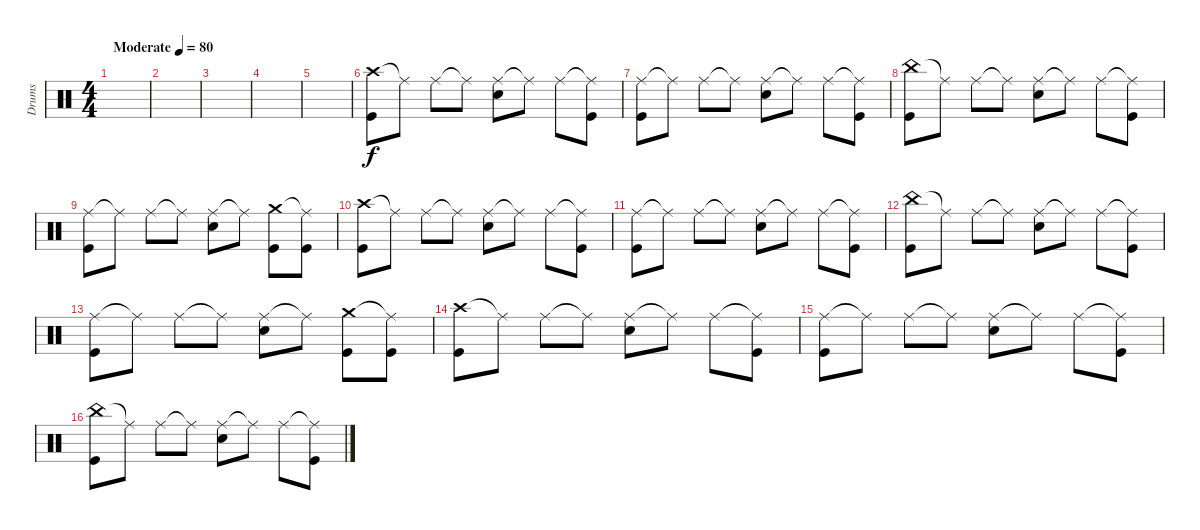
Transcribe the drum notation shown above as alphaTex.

\track ("Drums" "Drums") {instrument percussion}
\staff {score}
\articulation defaults
\ts (4 4)
\tempo (80 "Moderate")
\clef neutral
\ks c
|
|
|
|
|
("Crash high (hit)" "Kick (hit)").8 "Ride (middle)"{t}.8 "Ride (middle)".8 "Ride (middle)"{t}.8 ("Ride (middle)" "Electric Snare (hit)").8 "Ride (middle)"{t}.8 "Ride (middle)".8 ("Ride (middle)"{t} "Kick (hit)").8 |
("Ride (middle)" "Kick (hit)").8 "Ride (middle)"{t}.8 "Ride (middle)".8 "Ride (middle)"{t}.8 ("Ride (middle)" "Electric Snare (hit)").8 "Ride (middle)"{t}.8 "Ride (middle)".8 ("Ride (middle)"{t} "Kick (hit)").8 |
("China (hit)" "Kick (hit)").8 "Ride (middle)"{t}.8 "Ride (middle)".8 "Ride (middle)"{t}.8 ("Ride (middle)" "Electric Snare (hit)").8 "Ride (middle)"{t}.8 "Ride (middle)".8 ("Ride (middle)"{t} "Kick (hit)").8 |
("Ride (middle)" "Kick (hit)").8 "Ride (middle)"{t}.8 "Ride (middle)".8 "Ride (middle)"{t}.8 ("Ride (middle)" "Electric Snare (hit)").8 "Ride (middle)"{t}.8 ("Crash medium (hit)" "Kick (hit)").8 ("Ride (middle)"{t} "Kick (hit)").8 |
("Crash high (hit)" "Kick (hit)").8 "Ride (middle)"{t}.8 "Ride (middle)".8 "Ride (middle)"{t}.8 ("Ride (middle)" "Electric Snare (hit)").8 "Ride (middle)"{t}.8 "Ride (middle)".8 ("Ride (middle)"{t} "Kick (hit)").8 |
("Ride (middle)" "Kick (hit)").8 "Ride (middle)"{t}.8 "Ride (middle)".8 "Ride (middle)"{t}.8 ("Ride (middle)" "Electric Snare (hit)").8 "Ride (middle)"{t}.8 "Ride (middle)".8 ("Ride (middle)"{t} "Kick (hit)").8 |
("China (hit)" "Kick (hit)").8 "Ride (middle)"{t}.8 "Ride (middle)".8 "Ride (middle)"{t}.8 ("Ride (middle)" "Electric Snare (hit)").8 "Ride (middle)"{t}.8 "Ride (middle)".8 ("Ride (middle)"{t} "Kick (hit)").8 |
("Ride (middle)" "Kick (hit)").8 "Ride (middle)"{t}.8 "Ride (middle)".8 "Ride (middle)"{t}.8 ("Ride (middle)" "Electric Snare (hit)").8 "Ride (middle)"{t}.8 ("Crash medium (hit)" "Kick (hit)").8 ("Ride (middle)"{t} "Kick (hit)").8 |
("Crash high (hit)" "Kick (hit)").8 "Ride (middle)"{t}.8 "Ride (middle)".8 "Ride (middle)"{t}.8 ("Ride (middle)" "Electric Snare (hit)").8 "Ride (middle)"{t}.8 "Ride (middle)".8 ("Ride (middle)"{t} "Kick (hit)").8 |
("Ride (middle)" "Kick (hit)").8 "Ride (middle)"{t}.8 "Ride (middle)".8 "Ride (middle)"{t}.8 ("Ride (middle)" "Electric Snare (hit)").8 "Ride (middle)"{t}.8 "Ride (middle)".8 ("Ride (middle)"{t} "Kick (hit)").8 |
("China (hit)" "Kick (hit)").8 "Ride (middle)"{t}.8 "Ride (middle)".8 "Ride (middle)"{t}.8 ("Ride (middle)" "Electric Snare (hit)").8 "Ride (middle)"{t}.8 "Ride (middle)".8 ("Ride (middle)"{t} "Kick (hit)").8
